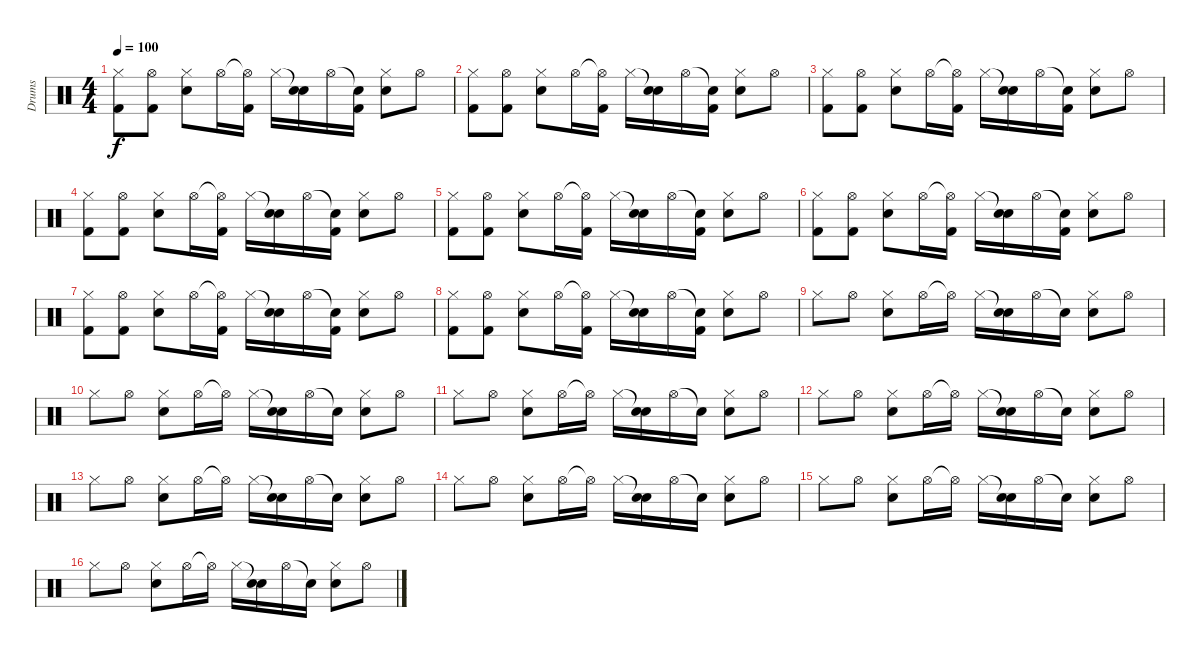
\track ("Drums" "Drums") {instrument percussion}
\staff {score}
\articulation defaults
\ts (4 4)
\tempo 100
\clef neutral
\ks c
("Hi-Hat (closed)" "Kick (hit) 2").8{dy f} ("Hi-Hat (open)" "Kick (hit) 2").8 ("Hi-Hat (closed)" "Electric Snare (hit)").8 "Hi-Hat (open)".16 ("Hi-Hat (open)"{t} "Kick (hit) 2").16 "Hi-Hat (closed)".16 ("Snare (hit)"{t} "Electric Snare (hit)").16 "Hi-Hat (open)".16 ("Snare (hit)"{t} "Kick (hit) 2").16 ("Hi-Hat (closed)" "Electric Snare (hit)").8 "Hi-Hat (open)".8 |
("Hi-Hat (closed)" "Kick (hit) 2").8 ("Hi-Hat (open)" "Kick (hit) 2").8 ("Hi-Hat (closed)" "Electric Snare (hit)").8 "Hi-Hat (open)".16 ("Hi-Hat (open)"{t} "Kick (hit) 2").16 "Hi-Hat (closed)".16 ("Snare (hit)"{t} "Electric Snare (hit)").16 "Hi-Hat (open)".16 ("Snare (hit)"{t} "Kick (hit) 2").16 ("Hi-Hat (closed)" "Electric Snare (hit)").8 "Hi-Hat (open)".8 |
("Hi-Hat (closed)" "Kick (hit) 2").8 ("Hi-Hat (open)" "Kick (hit) 2").8 ("Hi-Hat (closed)" "Electric Snare (hit)").8 "Hi-Hat (open)".16 ("Hi-Hat (open)"{t} "Kick (hit) 2").16 "Hi-Hat (closed)".16 ("Snare (hit)"{t} "Electric Snare (hit)").16 "Hi-Hat (open)".16 ("Snare (hit)"{t} "Kick (hit) 2").16 ("Hi-Hat (closed)" "Electric Snare (hit)").8 "Hi-Hat (open)".8 |
("Hi-Hat (closed)" "Kick (hit) 2").8 ("Hi-Hat (open)" "Kick (hit) 2").8 ("Hi-Hat (closed)" "Electric Snare (hit)").8 "Hi-Hat (open)".16 ("Hi-Hat (open)"{t} "Kick (hit) 2").16 "Hi-Hat (closed)".16 ("Snare (hit)"{t} "Electric Snare (hit)").16 "Hi-Hat (open)".16 ("Snare (hit)"{t} "Kick (hit) 2").16 ("Hi-Hat (closed)" "Electric Snare (hit)").8 "Hi-Hat (open)".8 |
("Hi-Hat (closed)" "Kick (hit) 2").8 ("Hi-Hat (open)" "Kick (hit) 2").8 ("Hi-Hat (closed)" "Electric Snare (hit)").8 "Hi-Hat (open)".16 ("Hi-Hat (open)"{t} "Kick (hit) 2").16 "Hi-Hat (closed)".16 ("Snare (hit)"{t} "Electric Snare (hit)").16 "Hi-Hat (open)".16 ("Snare (hit)"{t} "Kick (hit) 2").16 ("Hi-Hat (closed)" "Electric Snare (hit)").8 "Hi-Hat (open)".8 |
("Hi-Hat (closed)" "Kick (hit) 2").8 ("Hi-Hat (open)" "Kick (hit) 2").8 ("Hi-Hat (closed)" "Electric Snare (hit)").8 "Hi-Hat (open)".16 ("Hi-Hat (open)"{t} "Kick (hit) 2").16 "Hi-Hat (closed)".16 ("Snare (hit)"{t} "Electric Snare (hit)").16 "Hi-Hat (open)".16 ("Snare (hit)"{t} "Kick (hit) 2").16 ("Hi-Hat (closed)" "Electric Snare (hit)").8 "Hi-Hat (open)".8 |
("Hi-Hat (closed)" "Kick (hit) 2").8 ("Hi-Hat (open)" "Kick (hit) 2").8 ("Hi-Hat (closed)" "Electric Snare (hit)").8 "Hi-Hat (open)".16 ("Hi-Hat (open)"{t} "Kick (hit) 2").16 "Hi-Hat (closed)".16 ("Snare (hit)"{t} "Electric Snare (hit)").16 "Hi-Hat (open)".16 ("Snare (hit)"{t} "Kick (hit) 2").16 ("Hi-Hat (closed)" "Electric Snare (hit)").8 "Hi-Hat (open)".8 |
("Hi-Hat (closed)" "Kick (hit) 2").8 ("Hi-Hat (open)" "Kick (hit) 2").8 ("Hi-Hat (closed)" "Electric Snare (hit)").8 "Hi-Hat (open)".16 ("Hi-Hat (open)"{t} "Kick (hit) 2").16 "Hi-Hat (closed)".16 ("Snare (hit)"{t} "Electric Snare (hit)").16 "Hi-Hat (open)".16 ("Snare (hit)"{t} "Kick (hit) 2").16 ("Hi-Hat (closed)" "Electric Snare (hit)").8 "Hi-Hat (open)".8 |
"Hi-Hat (closed)".8 "Hi-Hat (open)".8 ("Hi-Hat (closed)" "Electric Snare (hit)").8 "Hi-Hat (open)".16 "Hi-Hat (open)"{t}.16 "Hi-Hat (closed)".16 ("Snare (hit)"{t} "Electric Snare (hit)").16 "Hi-Hat (open)".16 "Snare (hit)"{t}.16 ("Hi-Hat (closed)" "Electric Snare (hit)").8 "Hi-Hat (open)".8 |
"Hi-Hat (closed)".8 "Hi-Hat (open)".8 ("Hi-Hat (closed)" "Electric Snare (hit)").8 "Hi-Hat (open)".16 "Hi-Hat (open)"{t}.16 "Hi-Hat (closed)".16 ("Snare (hit)"{t} "Electric Snare (hit)").16 "Hi-Hat (open)".16 "Snare (hit)"{t}.16 ("Hi-Hat (closed)" "Electric Snare (hit)").8 "Hi-Hat (open)".8 |
"Hi-Hat (closed)".8 "Hi-Hat (open)".8 ("Hi-Hat (closed)" "Electric Snare (hit)").8 "Hi-Hat (open)".16 "Hi-Hat (open)"{t}.16 "Hi-Hat (closed)".16 ("Snare (hit)"{t} "Electric Snare (hit)").16 "Hi-Hat (open)".16 "Snare (hit)"{t}.16 ("Hi-Hat (closed)" "Electric Snare (hit)").8 "Hi-Hat (open)".8 |
"Hi-Hat (closed)".8 "Hi-Hat (open)".8 ("Hi-Hat (closed)" "Electric Snare (hit)").8 "Hi-Hat (open)".16 "Hi-Hat (open)"{t}.16 "Hi-Hat (closed)".16 ("Snare (hit)"{t} "Electric Snare (hit)").16 "Hi-Hat (open)".16 "Snare (hit)"{t}.16 ("Hi-Hat (closed)" "Electric Snare (hit)").8 "Hi-Hat (open)".8 |
"Hi-Hat (closed)".8 "Hi-Hat (open)".8 ("Hi-Hat (closed)" "Electric Snare (hit)").8 "Hi-Hat (open)".16 "Hi-Hat (open)"{t}.16 "Hi-Hat (closed)".16 ("Snare (hit)"{t} "Electric Snare (hit)").16 "Hi-Hat (open)".16 "Snare (hit)"{t}.16 ("Hi-Hat (closed)" "Electric Snare (hit)").8 "Hi-Hat (open)".8 |
"Hi-Hat (closed)".8 "Hi-Hat (open)".8 ("Hi-Hat (closed)" "Electric Snare (hit)").8 "Hi-Hat (open)".16 "Hi-Hat (open)"{t}.16 "Hi-Hat (closed)".16 ("Snare (hit)"{t} "Electric Snare (hit)").16 "Hi-Hat (open)".16 "Snare (hit)"{t}.16 ("Hi-Hat (closed)" "Electric Snare (hit)").8 "Hi-Hat (open)".8 |
"Hi-Hat (closed)".8 "Hi-Hat (open)".8 ("Hi-Hat (closed)" "Electric Snare (hit)").8 "Hi-Hat (open)".16 "Hi-Hat (open)"{t}.16 "Hi-Hat (closed)".16 ("Snare (hit)"{t} "Electric Snare (hit)").16 "Hi-Hat (open)".16 "Snare (hit)"{t}.16 ("Hi-Hat (closed)" "Electric Snare (hit)").8 "Hi-Hat (open)".8 |
"Hi-Hat (closed)".8 "Hi-Hat (open)".8 ("Hi-Hat (closed)" "Electric Snare (hit)").8 "Hi-Hat (open)".16 "Hi-Hat (open)"{t}.16 "Hi-Hat (closed)".16 ("Snare (hit)"{t} "Electric Snare (hit)").16 "Hi-Hat (open)".16 "Snare (hit)"{t}.16 ("Hi-Hat (closed)" "Electric Snare (hit)").8 "Hi-Hat (open)".8
